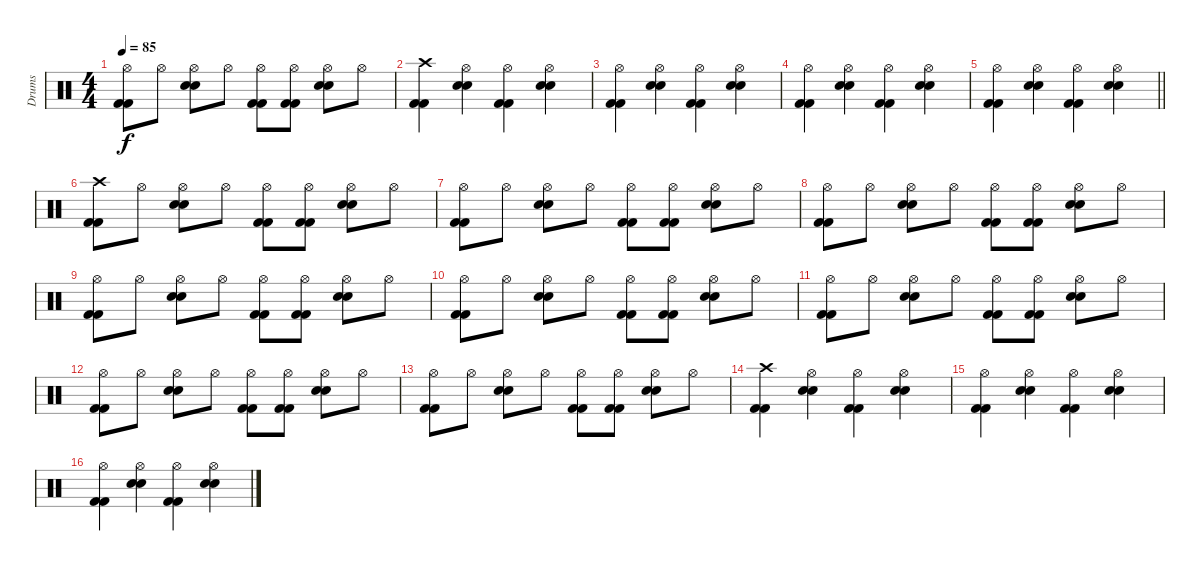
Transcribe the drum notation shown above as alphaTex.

\track ("Drums" "Drums") {instrument percussion}
\staff {score}
\articulation defaults
\ts (4 4)
\tempo 85
\clef neutral
\ks c
("Hi-Hat (open)" "Kick (hit) 2" "Kick (hit) 2").8{dy f} "Hi-Hat (open)".8 ("Electric Snare (hit)" "Hi-Hat (open)" "Electric Snare (hit)").8 "Hi-Hat (open)".8 ("Hi-Hat (open)" "Kick (hit) 2" "Kick (hit) 2").8 ("Hi-Hat (open)" "Kick (hit) 2" "Kick (hit) 2").8 ("Hi-Hat (open)" "Electric Snare (hit)" "Electric Snare (hit)").8 "Hi-Hat (open)".8 |
("Crash high (hit)" "Kick (hit) 2" "Kick (hit) 2").4 ("Electric Snare (hit)" "Electric Snare (hit)" "Hi-Hat (open)").4 ("Hi-Hat (open)" "Kick (hit) 2" "Kick (hit) 2").4 ("Electric Snare (hit)" "Electric Snare (hit)" "Hi-Hat (open)").4 |
("Hi-Hat (open)" "Kick (hit) 2" "Kick (hit) 2").4 ("Electric Snare (hit)" "Electric Snare (hit)" "Hi-Hat (open)").4 ("Hi-Hat (open)" "Kick (hit) 2" "Kick (hit) 2").4 ("Electric Snare (hit)" "Electric Snare (hit)" "Hi-Hat (open)").4 |
("Hi-Hat (open)" "Kick (hit) 2" "Kick (hit) 2").4 ("Electric Snare (hit)" "Electric Snare (hit)" "Hi-Hat (open)").4 ("Hi-Hat (open)" "Kick (hit) 2" "Kick (hit) 2").4 ("Electric Snare (hit)" "Electric Snare (hit)" "Hi-Hat (open)").4 |
\barLineRight lightlight
("Hi-Hat (open)" "Kick (hit) 2" "Kick (hit) 2").4 ("Electric Snare (hit)" "Electric Snare (hit)" "Hi-Hat (open)").4 ("Hi-Hat (open)" "Kick (hit) 2" "Kick (hit) 2").4 ("Electric Snare (hit)" "Electric Snare (hit)" "Hi-Hat (open)").4 |
("Crash high (hit)" "Kick (hit) 2" "Kick (hit) 2").8 "Hi-Hat (open)".8 ("Electric Snare (hit)" "Hi-Hat (open)" "Electric Snare (hit)").8 "Hi-Hat (open)".8 ("Hi-Hat (open)" "Kick (hit) 2" "Kick (hit) 2").8 ("Hi-Hat (open)" "Kick (hit) 2" "Kick (hit) 2").8 ("Hi-Hat (open)" "Electric Snare (hit)" "Electric Snare (hit)").8 "Hi-Hat (open)".8 |
("Hi-Hat (open)" "Kick (hit) 2" "Kick (hit) 2").8 "Hi-Hat (open)".8 ("Electric Snare (hit)" "Hi-Hat (open)" "Electric Snare (hit)").8 "Hi-Hat (open)".8 ("Hi-Hat (open)" "Kick (hit) 2" "Kick (hit) 2").8 ("Hi-Hat (open)" "Kick (hit) 2" "Kick (hit) 2").8 ("Hi-Hat (open)" "Electric Snare (hit)" "Electric Snare (hit)").8 "Hi-Hat (open)".8 |
("Hi-Hat (open)" "Kick (hit) 2" "Kick (hit) 2").8 "Hi-Hat (open)".8 ("Electric Snare (hit)" "Hi-Hat (open)" "Electric Snare (hit)").8 "Hi-Hat (open)".8 ("Hi-Hat (open)" "Kick (hit) 2" "Kick (hit) 2").8 ("Hi-Hat (open)" "Kick (hit) 2" "Kick (hit) 2").8 ("Hi-Hat (open)" "Electric Snare (hit)" "Electric Snare (hit)").8 "Hi-Hat (open)".8 |
("Hi-Hat (open)" "Kick (hit) 2" "Kick (hit) 2").8 "Hi-Hat (open)".8 ("Electric Snare (hit)" "Hi-Hat (open)" "Electric Snare (hit)").8 "Hi-Hat (open)".8 ("Hi-Hat (open)" "Kick (hit) 2" "Kick (hit) 2").8 ("Hi-Hat (open)" "Kick (hit) 2" "Kick (hit) 2").8 ("Hi-Hat (open)" "Electric Snare (hit)" "Electric Snare (hit)").8 "Hi-Hat (open)".8 |
("Hi-Hat (open)" "Kick (hit) 2" "Kick (hit) 2").8 "Hi-Hat (open)".8 ("Electric Snare (hit)" "Hi-Hat (open)" "Electric Snare (hit)").8 "Hi-Hat (open)".8 ("Hi-Hat (open)" "Kick (hit) 2" "Kick (hit) 2").8 ("Hi-Hat (open)" "Kick (hit) 2" "Kick (hit) 2").8 ("Hi-Hat (open)" "Electric Snare (hit)" "Electric Snare (hit)").8 "Hi-Hat (open)".8 |
("Hi-Hat (open)" "Kick (hit) 2" "Kick (hit) 2").8 "Hi-Hat (open)".8 ("Electric Snare (hit)" "Hi-Hat (open)" "Electric Snare (hit)").8 "Hi-Hat (open)".8 ("Hi-Hat (open)" "Kick (hit) 2" "Kick (hit) 2").8 ("Hi-Hat (open)" "Kick (hit) 2" "Kick (hit) 2").8 ("Hi-Hat (open)" "Electric Snare (hit)" "Electric Snare (hit)").8 "Hi-Hat (open)".8 |
("Hi-Hat (open)" "Kick (hit) 2" "Kick (hit) 2").8 "Hi-Hat (open)".8 ("Electric Snare (hit)" "Hi-Hat (open)" "Electric Snare (hit)").8 "Hi-Hat (open)".8 ("Hi-Hat (open)" "Kick (hit) 2" "Kick (hit) 2").8 ("Hi-Hat (open)" "Kick (hit) 2" "Kick (hit) 2").8 ("Hi-Hat (open)" "Electric Snare (hit)" "Electric Snare (hit)").8 "Hi-Hat (open)".8 |
("Hi-Hat (open)" "Kick (hit) 2" "Kick (hit) 2").8 "Hi-Hat (open)".8 ("Electric Snare (hit)" "Hi-Hat (open)" "Electric Snare (hit)").8 "Hi-Hat (open)".8 ("Hi-Hat (open)" "Kick (hit) 2" "Kick (hit) 2").8 ("Hi-Hat (open)" "Kick (hit) 2" "Kick (hit) 2").8 ("Hi-Hat (open)" "Electric Snare (hit)" "Electric Snare (hit)").8 "Hi-Hat (open)".8 |
("Crash high (hit)" "Kick (hit) 2" "Kick (hit) 2").4 ("Electric Snare (hit)" "Electric Snare (hit)" "Hi-Hat (open)").4 ("Hi-Hat (open)" "Kick (hit) 2" "Kick (hit) 2").4 ("Electric Snare (hit)" "Electric Snare (hit)" "Hi-Hat (open)").4 |
("Hi-Hat (open)" "Kick (hit) 2" "Kick (hit) 2").4 ("Electric Snare (hit)" "Electric Snare (hit)" "Hi-Hat (open)").4 ("Hi-Hat (open)" "Kick (hit) 2" "Kick (hit) 2").4 ("Electric Snare (hit)" "Electric Snare (hit)" "Hi-Hat (open)").4 |
("Hi-Hat (open)" "Kick (hit) 2" "Kick (hit) 2").4 ("Electric Snare (hit)" "Electric Snare (hit)" "Hi-Hat (open)").4 ("Hi-Hat (open)" "Kick (hit) 2" "Kick (hit) 2").4 ("Electric Snare (hit)" "Electric Snare (hit)" "Hi-Hat (open)").4
